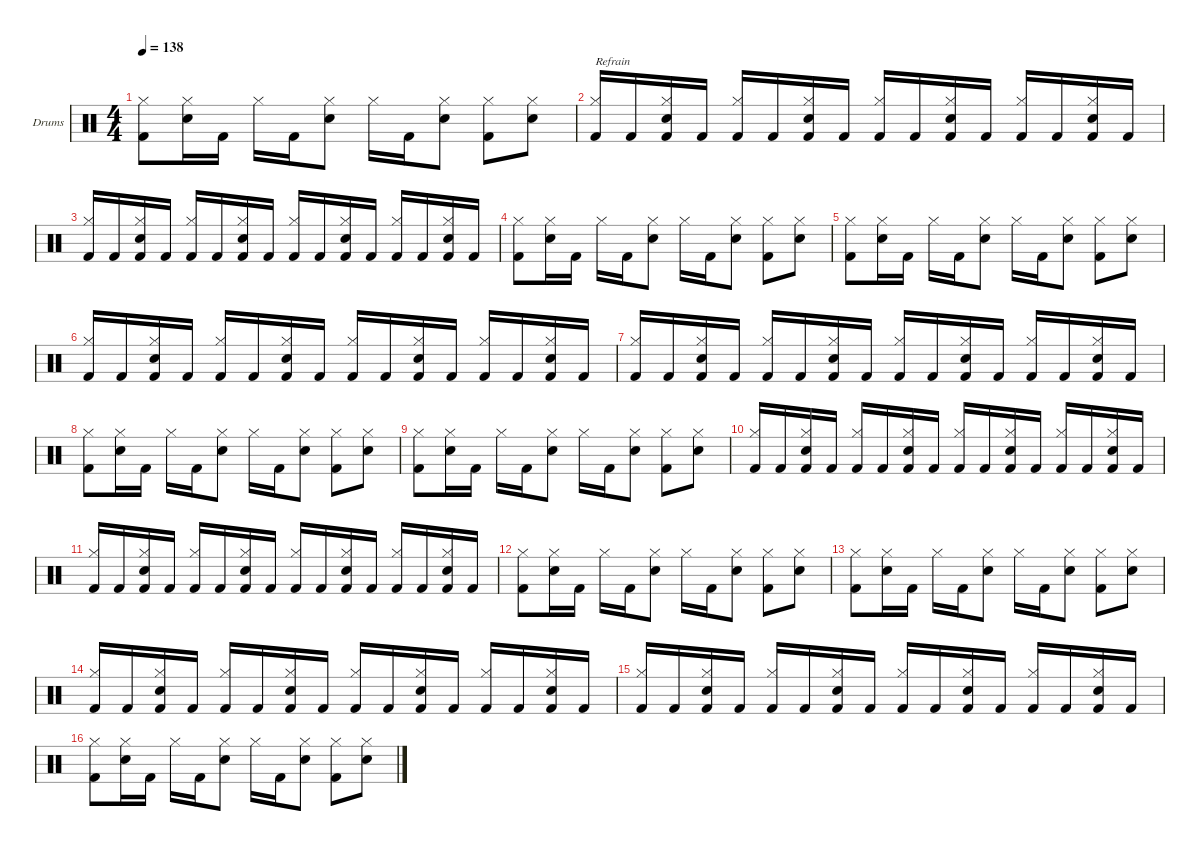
\hideDynamics
\bracketExtendMode nobrackets
\firstSystemTrackNameOrientation horizontal
\otherSystemsTrackNameOrientation horizontal
\track ("Drumkit" "Drums") {instrument percussion}
\staff {score}
\articulation defaults
\ts (4 4)
\tempo 138
\clef neutral
\ks c
("Hi-Hat (closed)" "Kick (hit) 2").8{dy f beam Down} ("Snare (hit) 2" "Hi-Hat (closed)").16{beam Down} "Kick (hit) 2".16{beam Down} "Hi-Hat (closed)".16{beam Down} "Kick (hit) 2".16{beam Down} ("Snare (hit) 2" "Hi-Hat (closed)").8{beam Down} "Hi-Hat (closed)".16{beam Down} "Kick (hit) 2".16{beam Down} ("Snare (hit) 2" "Hi-Hat (closed)").8{beam Down} ("Hi-Hat (closed)" "Kick (hit) 2").8{beam Down} ("Snare (hit) 2" "Hi-Hat (closed)").8{beam Down} |
("Hi-Hat (closed)" "Kick (hit) 2").16{txt "Refrain" beam Up} "Kick (hit) 2".16{beam Up} ("Snare (hit) 2" "Hi-Hat (closed)" "Kick (hit) 2").16{beam Up} "Kick (hit) 2".16{beam Up} ("Hi-Hat (closed)" "Kick (hit) 2").16{beam Up} "Kick (hit) 2".16{beam Up} ("Snare (hit) 2" "Hi-Hat (closed)" "Kick (hit) 2").16{beam Up} "Kick (hit) 2".16{beam Up} ("Hi-Hat (closed)" "Kick (hit) 2").16{beam Up} "Kick (hit) 2".16{beam Up} ("Snare (hit) 2" "Hi-Hat (closed)" "Kick (hit) 2").16{beam Up} "Kick (hit) 2".16{beam Up} ("Hi-Hat (closed)" "Kick (hit) 2").16{beam Up} "Kick (hit) 2".16{beam Up} ("Snare (hit) 2" "Hi-Hat (closed)" "Kick (hit) 2").16{beam Up} "Kick (hit) 2".16{beam Up} |
("Hi-Hat (closed)" "Kick (hit) 2").16{beam Up} "Kick (hit) 2".16{beam Up} ("Snare (hit) 2" "Hi-Hat (closed)" "Kick (hit) 2").16{beam Up} "Kick (hit) 2".16{beam Up} ("Hi-Hat (closed)" "Kick (hit) 2").16{beam Up} "Kick (hit) 2".16{beam Up} ("Snare (hit) 2" "Hi-Hat (closed)" "Kick (hit) 2").16{beam Up} "Kick (hit) 2".16{beam Up} ("Hi-Hat (closed)" "Kick (hit) 2").16{beam Up} "Kick (hit) 2".16{beam Up} ("Snare (hit) 2" "Hi-Hat (closed)" "Kick (hit) 2").16{beam Up} "Kick (hit) 2".16{beam Up} ("Hi-Hat (closed)" "Kick (hit) 2").16{beam Up} "Kick (hit) 2".16{beam Up} ("Snare (hit) 2" "Hi-Hat (closed)" "Kick (hit) 2").16{beam Up} "Kick (hit) 2".16{beam Up} |
("Hi-Hat (closed)" "Kick (hit) 2").8{beam Down} ("Snare (hit) 2" "Hi-Hat (closed)").16{beam Down} "Kick (hit) 2".16{beam Down} "Hi-Hat (closed)".16{beam Down} "Kick (hit) 2".16{beam Down} ("Snare (hit) 2" "Hi-Hat (closed)").8{beam Down} "Hi-Hat (closed)".16{beam Down} "Kick (hit) 2".16{beam Down} ("Snare (hit) 2" "Hi-Hat (closed)").8{beam Down} ("Hi-Hat (closed)" "Kick (hit) 2").8{beam Down} ("Snare (hit) 2" "Hi-Hat (closed)").8{beam Down} |
("Hi-Hat (closed)" "Kick (hit) 2").8{beam Down} ("Snare (hit) 2" "Hi-Hat (closed)").16{beam Down} "Kick (hit) 2".16{beam Down} "Hi-Hat (closed)".16{beam Down} "Kick (hit) 2".16{beam Down} ("Snare (hit) 2" "Hi-Hat (closed)").8{beam Down} "Hi-Hat (closed)".16{beam Down} "Kick (hit) 2".16{beam Down} ("Snare (hit) 2" "Hi-Hat (closed)").8{beam Down} ("Hi-Hat (closed)" "Kick (hit) 2").8{beam Down} ("Snare (hit) 2" "Hi-Hat (closed)").8{beam Down} |
("Hi-Hat (closed)" "Kick (hit) 2").16{beam Up} "Kick (hit) 2".16{beam Up} ("Snare (hit) 2" "Hi-Hat (closed)" "Kick (hit) 2").16{beam Up} "Kick (hit) 2".16{beam Up} ("Hi-Hat (closed)" "Kick (hit) 2").16{beam Up} "Kick (hit) 2".16{beam Up} ("Snare (hit) 2" "Hi-Hat (closed)" "Kick (hit) 2").16{beam Up} "Kick (hit) 2".16{beam Up} ("Hi-Hat (closed)" "Kick (hit) 2").16{beam Up} "Kick (hit) 2".16{beam Up} ("Snare (hit) 2" "Hi-Hat (closed)" "Kick (hit) 2").16{beam Up} "Kick (hit) 2".16{beam Up} ("Hi-Hat (closed)" "Kick (hit) 2").16{beam Up} "Kick (hit) 2".16{beam Up} ("Snare (hit) 2" "Hi-Hat (closed)" "Kick (hit) 2").16{beam Up} "Kick (hit) 2".16{beam Up} |
("Hi-Hat (closed)" "Kick (hit) 2").16{beam Up} "Kick (hit) 2".16{beam Up} ("Snare (hit) 2" "Hi-Hat (closed)" "Kick (hit) 2").16{beam Up} "Kick (hit) 2".16{beam Up} ("Hi-Hat (closed)" "Kick (hit) 2").16{beam Up} "Kick (hit) 2".16{beam Up} ("Snare (hit) 2" "Hi-Hat (closed)" "Kick (hit) 2").16{beam Up} "Kick (hit) 2".16{beam Up} ("Hi-Hat (closed)" "Kick (hit) 2").16{beam Up} "Kick (hit) 2".16{beam Up} ("Snare (hit) 2" "Hi-Hat (closed)" "Kick (hit) 2").16{beam Up} "Kick (hit) 2".16{beam Up} ("Hi-Hat (closed)" "Kick (hit) 2").16{beam Up} "Kick (hit) 2".16{beam Up} ("Snare (hit) 2" "Hi-Hat (closed)" "Kick (hit) 2").16{beam Up} "Kick (hit) 2".16{beam Up} |
("Hi-Hat (closed)" "Kick (hit) 2").8{beam Down} ("Snare (hit) 2" "Hi-Hat (closed)").16{beam Down} "Kick (hit) 2".16{beam Down} "Hi-Hat (closed)".16{beam Down} "Kick (hit) 2".16{beam Down} ("Snare (hit) 2" "Hi-Hat (closed)").8{beam Down} "Hi-Hat (closed)".16{beam Down} "Kick (hit) 2".16{beam Down} ("Snare (hit) 2" "Hi-Hat (closed)").8{beam Down} ("Hi-Hat (closed)" "Kick (hit) 2").8{beam Down} ("Snare (hit) 2" "Hi-Hat (closed)").8{beam Down} |
("Hi-Hat (closed)" "Kick (hit) 2").8{beam Down} ("Snare (hit) 2" "Hi-Hat (closed)").16{beam Down} "Kick (hit) 2".16{beam Down} "Hi-Hat (closed)".16{beam Down} "Kick (hit) 2".16{beam Down} ("Snare (hit) 2" "Hi-Hat (closed)").8{beam Down} "Hi-Hat (closed)".16{beam Down} "Kick (hit) 2".16{beam Down} ("Snare (hit) 2" "Hi-Hat (closed)").8{beam Down} ("Hi-Hat (closed)" "Kick (hit) 2").8{beam Down} ("Snare (hit) 2" "Hi-Hat (closed)").8{beam Down} |
("Hi-Hat (closed)" "Kick (hit) 2").16{beam Up} "Kick (hit) 2".16{beam Up} ("Snare (hit) 2" "Hi-Hat (closed)" "Kick (hit) 2").16{beam Up} "Kick (hit) 2".16{beam Up} ("Hi-Hat (closed)" "Kick (hit) 2").16{beam Up} "Kick (hit) 2".16{beam Up} ("Snare (hit) 2" "Hi-Hat (closed)" "Kick (hit) 2").16{beam Up} "Kick (hit) 2".16{beam Up} ("Hi-Hat (closed)" "Kick (hit) 2").16{beam Up} "Kick (hit) 2".16{beam Up} ("Snare (hit) 2" "Hi-Hat (closed)" "Kick (hit) 2").16{beam Up} "Kick (hit) 2".16{beam Up} ("Hi-Hat (closed)" "Kick (hit) 2").16{beam Up} "Kick (hit) 2".16{beam Up} ("Snare (hit) 2" "Hi-Hat (closed)" "Kick (hit) 2").16{beam Up} "Kick (hit) 2".16{beam Up} |
("Hi-Hat (closed)" "Kick (hit) 2").16{beam Up} "Kick (hit) 2".16{beam Up} ("Snare (hit) 2" "Hi-Hat (closed)" "Kick (hit) 2").16{beam Up} "Kick (hit) 2".16{beam Up} ("Hi-Hat (closed)" "Kick (hit) 2").16{beam Up} "Kick (hit) 2".16{beam Up} ("Snare (hit) 2" "Hi-Hat (closed)" "Kick (hit) 2").16{beam Up} "Kick (hit) 2".16{beam Up} ("Hi-Hat (closed)" "Kick (hit) 2").16{beam Up} "Kick (hit) 2".16{beam Up} ("Snare (hit) 2" "Hi-Hat (closed)" "Kick (hit) 2").16{beam Up} "Kick (hit) 2".16{beam Up} ("Hi-Hat (closed)" "Kick (hit) 2").16{beam Up} "Kick (hit) 2".16{beam Up} ("Snare (hit) 2" "Hi-Hat (closed)" "Kick (hit) 2").16{beam Up} "Kick (hit) 2".16{beam Up} |
("Hi-Hat (closed)" "Kick (hit) 2").8{beam Down} ("Snare (hit) 2" "Hi-Hat (closed)").16{beam Down} "Kick (hit) 2".16{beam Down} "Hi-Hat (closed)".16{beam Down} "Kick (hit) 2".16{beam Down} ("Snare (hit) 2" "Hi-Hat (closed)").8{beam Down} "Hi-Hat (closed)".16{beam Down} "Kick (hit) 2".16{beam Down} ("Snare (hit) 2" "Hi-Hat (closed)").8{beam Down} ("Hi-Hat (closed)" "Kick (hit) 2").8{beam Down} ("Snare (hit) 2" "Hi-Hat (closed)").8{beam Down} |
("Hi-Hat (closed)" "Kick (hit) 2").8{beam Down} ("Snare (hit) 2" "Hi-Hat (closed)").16{beam Down} "Kick (hit) 2".16{beam Down} "Hi-Hat (closed)".16{beam Down} "Kick (hit) 2".16{beam Down} ("Snare (hit) 2" "Hi-Hat (closed)").8{beam Down} "Hi-Hat (closed)".16{beam Down} "Kick (hit) 2".16{beam Down} ("Snare (hit) 2" "Hi-Hat (closed)").8{beam Down} ("Hi-Hat (closed)" "Kick (hit) 2").8{beam Down} ("Snare (hit) 2" "Hi-Hat (closed)").8{beam Down} |
("Hi-Hat (closed)" "Kick (hit) 2").16{beam Up} "Kick (hit) 2".16{beam Up} ("Snare (hit) 2" "Hi-Hat (closed)" "Kick (hit) 2").16{beam Up} "Kick (hit) 2".16{beam Up} ("Hi-Hat (closed)" "Kick (hit) 2").16{beam Up} "Kick (hit) 2".16{beam Up} ("Snare (hit) 2" "Hi-Hat (closed)" "Kick (hit) 2").16{beam Up} "Kick (hit) 2".16{beam Up} ("Hi-Hat (closed)" "Kick (hit) 2").16{beam Up} "Kick (hit) 2".16{beam Up} ("Snare (hit) 2" "Hi-Hat (closed)" "Kick (hit) 2").16{beam Up} "Kick (hit) 2".16{beam Up} ("Hi-Hat (closed)" "Kick (hit) 2").16{beam Up} "Kick (hit) 2".16{beam Up} ("Snare (hit) 2" "Hi-Hat (closed)" "Kick (hit) 2").16{beam Up} "Kick (hit) 2".16{beam Up} |
("Hi-Hat (closed)" "Kick (hit) 2").16{beam Up} "Kick (hit) 2".16{beam Up} ("Snare (hit) 2" "Hi-Hat (closed)" "Kick (hit) 2").16{beam Up} "Kick (hit) 2".16{beam Up} ("Hi-Hat (closed)" "Kick (hit) 2").16{beam Up} "Kick (hit) 2".16{beam Up} ("Snare (hit) 2" "Hi-Hat (closed)" "Kick (hit) 2").16{beam Up} "Kick (hit) 2".16{beam Up} ("Hi-Hat (closed)" "Kick (hit) 2").16{beam Up} "Kick (hit) 2".16{beam Up} ("Snare (hit) 2" "Hi-Hat (closed)" "Kick (hit) 2").16{beam Up} "Kick (hit) 2".16{beam Up} ("Hi-Hat (closed)" "Kick (hit) 2").16{beam Up} "Kick (hit) 2".16{beam Up} ("Snare (hit) 2" "Hi-Hat (closed)" "Kick (hit) 2").16{beam Up} "Kick (hit) 2".16{beam Up} |
("Hi-Hat (closed)" "Kick (hit) 2").8{beam Down} ("Snare (hit) 2" "Hi-Hat (closed)").16{beam Down} "Kick (hit) 2".16{beam Down} "Hi-Hat (closed)".16{beam Down} "Kick (hit) 2".16{beam Down} ("Snare (hit) 2" "Hi-Hat (closed)").8{beam Down} "Hi-Hat (closed)".16{beam Down} "Kick (hit) 2".16{beam Down} ("Snare (hit) 2" "Hi-Hat (closed)").8{beam Down} ("Hi-Hat (closed)" "Kick (hit) 2").8{beam Down} ("Snare (hit) 2" "Hi-Hat (closed)").8{beam Down}
